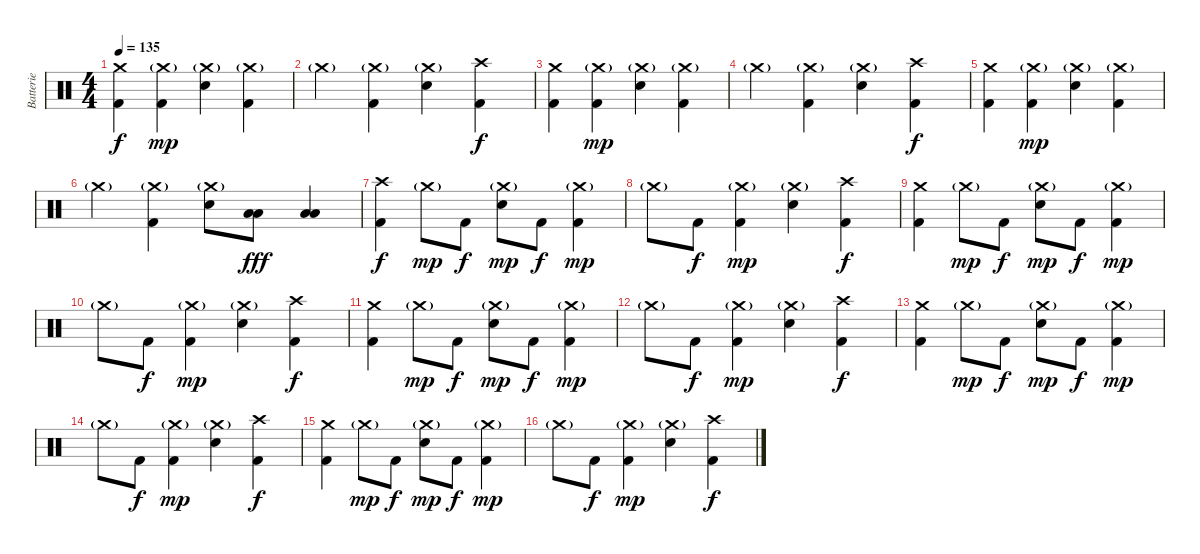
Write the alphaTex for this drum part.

\track ("Batterie" "Batterie") {instrument percussion}
\staff {score}
\articulation defaults
\ts (4 4)
\tempo 135
\clef neutral
\ks c
("Crash medium (hit)" "Kick (hit) 2").4{dy f} ("Crash medium (hit)"{g} "Kick (hit) 2").4{dy mp} ("Crash medium (hit)"{g} "Electric Snare (hit)").4 ("Crash medium (hit)"{g} "Kick (hit) 2").4 |
"Crash medium (hit)"{g}.4 ("Crash medium (hit)"{g} "Kick (hit) 2").4 ("Crash medium (hit)"{g} "Electric Snare (hit)").4 ("Crash high (hit)" "Kick (hit) 2").4{dy f} |
("Crash medium (hit)" "Kick (hit) 2").4 ("Crash medium (hit)"{g} "Kick (hit) 2").4{dy mp} ("Crash medium (hit)"{g} "Electric Snare (hit)").4 ("Crash medium (hit)"{g} "Kick (hit) 2").4 |
"Crash medium (hit)"{g}.4 ("Crash medium (hit)"{g} "Kick (hit) 2").4 ("Crash medium (hit)"{g} "Electric Snare (hit)").4 ("Crash high (hit)" "Kick (hit) 2").4{dy f} |
("Crash medium (hit)" "Kick (hit) 2").4 ("Crash medium (hit)"{g} "Kick (hit) 2").4{dy mp} ("Crash medium (hit)"{g} "Electric Snare (hit)").4 ("Crash medium (hit)"{g} "Kick (hit) 2").4 |
"Crash medium (hit)"{g}.4 ("Crash medium (hit)"{g} "Kick (hit) 2").4 ("Crash medium (hit)"{g} "Electric Snare (hit)").8 ("Low Tom (hit)" "Low Tom (hit)").8{dy fff} ("Low Tom (hit)" "Low Tom (hit)").4 |
("Crash high (hit)" "Kick (hit) 2").4{dy f} "Crash medium (hit)"{g}.8{dy mp} "Kick (hit) 2".8{dy f} ("Crash medium (hit)"{g} "Electric Snare (hit)").8{dy mp} "Kick (hit) 2".8{dy f} ("Crash medium (hit)"{g} "Kick (hit) 2").4{dy mp} |
"Crash medium (hit)"{g}.8 "Kick (hit) 2".8{dy f} ("Crash medium (hit)"{g} "Kick (hit) 2").4{dy mp} ("Crash medium (hit)"{g} "Electric Snare (hit)").4 ("Crash high (hit)" "Kick (hit) 2").4{dy f} |
("Crash medium (hit)" "Kick (hit) 2").4 "Crash medium (hit)"{g}.8{dy mp} "Kick (hit) 2".8{dy f} ("Crash medium (hit)"{g} "Electric Snare (hit)").8{dy mp} "Kick (hit) 2".8{dy f} ("Crash medium (hit)"{g} "Kick (hit) 2").4{dy mp} |
"Crash medium (hit)"{g}.8 "Kick (hit) 2".8{dy f} ("Crash medium (hit)"{g} "Kick (hit) 2").4{dy mp} ("Crash medium (hit)"{g} "Electric Snare (hit)").4 ("Crash high (hit)" "Kick (hit) 2").4{dy f} |
("Crash medium (hit)" "Kick (hit) 2").4 "Crash medium (hit)"{g}.8{dy mp} "Kick (hit) 2".8{dy f} ("Crash medium (hit)"{g} "Electric Snare (hit)").8{dy mp} "Kick (hit) 2".8{dy f} ("Crash medium (hit)"{g} "Kick (hit) 2").4{dy mp} |
"Crash medium (hit)"{g}.8 "Kick (hit) 2".8{dy f} ("Crash medium (hit)"{g} "Kick (hit) 2").4{dy mp} ("Crash medium (hit)"{g} "Electric Snare (hit)").4 ("Crash high (hit)" "Kick (hit) 2").4{dy f} |
("Crash medium (hit)" "Kick (hit) 2").4 "Crash medium (hit)"{g}.8{dy mp} "Kick (hit) 2".8{dy f} ("Crash medium (hit)"{g} "Electric Snare (hit)").8{dy mp} "Kick (hit) 2".8{dy f} ("Crash medium (hit)"{g} "Kick (hit) 2").4{dy mp} |
"Crash medium (hit)"{g}.8 "Kick (hit) 2".8{dy f} ("Crash medium (hit)"{g} "Kick (hit) 2").4{dy mp} ("Crash medium (hit)"{g} "Electric Snare (hit)").4 ("Crash high (hit)" "Kick (hit) 2").4{dy f} |
("Crash medium (hit)" "Kick (hit) 2").4 "Crash medium (hit)"{g}.8{dy mp} "Kick (hit) 2".8{dy f} ("Crash medium (hit)"{g} "Electric Snare (hit)").8{dy mp} "Kick (hit) 2".8{dy f} ("Crash medium (hit)"{g} "Kick (hit) 2").4{dy mp} |
"Crash medium (hit)"{g}.8 "Kick (hit) 2".8{dy f} ("Crash medium (hit)"{g} "Kick (hit) 2").4{dy mp} ("Crash medium (hit)"{g} "Electric Snare (hit)").4 ("Crash high (hit)" "Kick (hit) 2").4{dy f}
